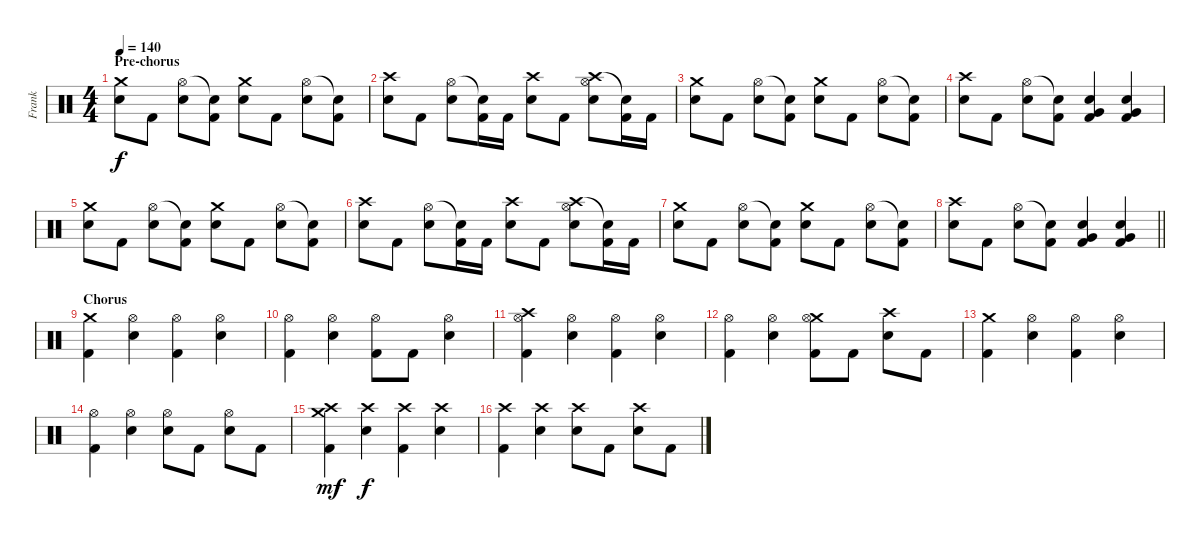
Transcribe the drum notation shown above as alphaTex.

\track ("Frank" "Frank") {instrument percussion}
\staff {score}
\articulation defaults
\ts (4 4)
\section ("" "Pre-chorus")
\tempo 140
\clef neutral
\ks c
("Crash medium (hit)" "Snare (hit) 2").8{dy f} "Kick (hit) 2".8 ("Hi-Hat (open)" "Snare (hit) 2").8 ("Snare (hit)"{t} "Kick (hit) 2").8 ("Crash medium (hit)" "Snare (hit) 2").8 "Kick (hit) 2".8 ("Hi-Hat (open)" "Snare (hit) 2").8 ("Snare (hit)"{t} "Kick (hit) 2").8 |
("Crash high (hit)" "Snare (hit) 2").8 "Kick (hit) 2".8 ("Hi-Hat (open)" "Snare (hit) 2").8 ("Snare (hit)"{t} "Kick (hit) 2").16 "Kick (hit) 2".16 ("Crash high (hit)" "Snare (hit) 2").8 "Kick (hit) 2".8 ("Crash high (hit)" "Hi-Hat (open)" "Snare (hit) 2").8 ("Snare (hit)"{t} "Kick (hit) 2").16 "Kick (hit) 2".16 |
("Crash medium (hit)" "Snare (hit) 2").8 "Kick (hit) 2".8 ("Hi-Hat (open)" "Snare (hit) 2").8 ("Snare (hit)"{t} "Kick (hit) 2").8 ("Crash medium (hit)" "Snare (hit) 2").8 "Kick (hit) 2".8 ("Hi-Hat (open)" "Snare (hit) 2").8 ("Snare (hit)"{t} "Kick (hit) 2").8 |
("Crash high (hit)" "Snare (hit) 2").8 "Kick (hit) 2".8 ("Hi-Hat (open)" "Snare (hit) 2").8 ("Snare (hit)"{t} "Kick (hit) 2").8 ("Very Low Tom (hit)" "Snare (hit) 2" "Kick (hit) 2").4 ("Very Low Tom (hit)" "Snare (hit) 2" "Kick (hit) 2").4 |
("Crash medium (hit)" "Snare (hit) 2").8 "Kick (hit) 2".8 ("Hi-Hat (open)" "Snare (hit) 2").8 ("Snare (hit)"{t} "Kick (hit) 2").8 ("Crash medium (hit)" "Snare (hit) 2").8 "Kick (hit) 2".8 ("Hi-Hat (open)" "Snare (hit) 2").8 ("Snare (hit)"{t} "Kick (hit) 2").8 |
("Crash high (hit)" "Snare (hit) 2").8 "Kick (hit) 2".8 ("Hi-Hat (open)" "Snare (hit) 2").8 ("Snare (hit)"{t} "Kick (hit) 2").16 "Kick (hit) 2".16 ("Crash high (hit)" "Snare (hit) 2").8 "Kick (hit) 2".8 ("Crash high (hit)" "Hi-Hat (open)" "Snare (hit) 2").8 ("Snare (hit)"{t} "Kick (hit) 2").16 "Kick (hit) 2".16 |
("Crash medium (hit)" "Snare (hit) 2").8 "Kick (hit) 2".8 ("Hi-Hat (open)" "Snare (hit) 2").8 ("Snare (hit)"{t} "Kick (hit) 2").8 ("Crash medium (hit)" "Snare (hit) 2").8 "Kick (hit) 2".8 ("Hi-Hat (open)" "Snare (hit) 2").8 ("Snare (hit)"{t} "Kick (hit) 2").8 |
\barLineRight lightlight
("Crash high (hit)" "Snare (hit) 2").8 "Kick (hit) 2".8 ("Hi-Hat (open)" "Snare (hit) 2").8 ("Snare (hit)"{t} "Kick (hit) 2").8 ("Very Low Tom (hit)" "Snare (hit) 2" "Kick (hit) 2").4 ("Very Low Tom (hit)" "Snare (hit) 2" "Kick (hit) 2").4 |
\section ("" "Chorus")
("Crash medium (hit)" "Kick (hit) 2").4 ("Hi-Hat (open)" "Snare (hit) 2").4 ("Hi-Hat (open)" "Kick (hit) 2").4 ("Hi-Hat (open)" "Snare (hit) 2").4 |
("Hi-Hat (open)" "Kick (hit) 2").4 ("Hi-Hat (open)" "Snare (hit) 2").4 ("Hi-Hat (open)" "Kick (hit) 2").8 "Kick (hit) 2".8 ("Hi-Hat (open)" "Snare (hit) 2").4 |
("Crash high (hit)" "Hi-Hat (open)" "Kick (hit) 2").4 ("Hi-Hat (open)" "Snare (hit) 2").4 ("Hi-Hat (open)" "Kick (hit) 2").4 ("Hi-Hat (open)" "Snare (hit) 2").4 |
("Hi-Hat (open)" "Kick (hit) 2").4 ("Hi-Hat (open)" "Snare (hit) 2").4 ("Crash medium (hit)" "Hi-Hat (open)" "Kick (hit) 2").8 "Kick (hit) 2".8 ("Crash high (hit)" "Snare (hit) 2").8 "Kick (hit) 2".8 |
("Crash medium (hit)" "Kick (hit) 2").4 ("Hi-Hat (open)" "Snare (hit) 2").4 ("Hi-Hat (open)" "Kick (hit) 2").4 ("Hi-Hat (open)" "Snare (hit) 2").4 |
("Hi-Hat (open)" "Kick (hit) 2").4 ("Hi-Hat (open)" "Snare (hit) 2").4 ("Hi-Hat (open)" "Snare (hit) 2").8 "Kick (hit) 2".8 ("Hi-Hat (open)" "Snare (hit) 2").8 "Kick (hit) 2".8 |
("Crash medium (hit)" "Crash high (hit)" "Kick (hit) 2").4{dy mf} ("Crash high (hit)" "Snare (hit) 2").4{dy f} ("Crash high (hit)" "Kick (hit) 2").4 ("Crash high (hit)" "Snare (hit) 2").4 |
("Crash high (hit)" "Kick (hit) 2").4 ("Crash high (hit)" "Snare (hit) 2").4 ("Crash high (hit)" "Snare (hit) 2").8 "Kick (hit) 2".8 ("Crash high (hit)" "Snare (hit) 2").8 "Kick (hit) 2".8
